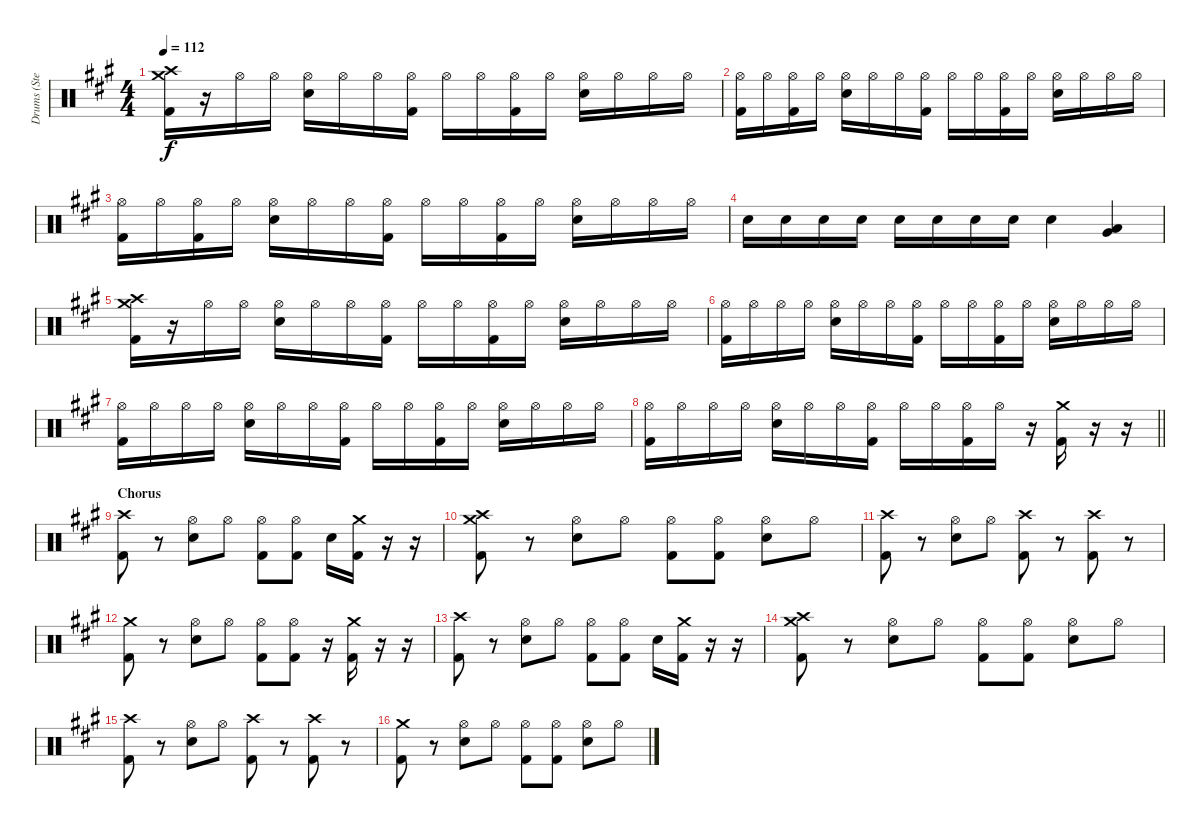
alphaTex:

\track ("Drums (Steven)" "Drums (Ste") {instrument percussion}
\staff {score}
\articulation defaults
\ts (4 4)
\tempo 112
\clef neutral
\ks f#minor
("Crash high (hit)" "Crash medium (hit)" "Kick (hit) 2").16{dy f} r.16 "Hi-Hat (open)".16 "Hi-Hat (open)".16 ("Hi-Hat (open)" "Snare (hit) 2").16 "Hi-Hat (open)".16 "Hi-Hat (open)".16 ("Hi-Hat (open)" "Kick (hit) 2").16 "Hi-Hat (open)".16 "Hi-Hat (open)".16 ("Hi-Hat (open)" "Kick (hit) 2").16 "Hi-Hat (open)".16 ("Hi-Hat (open)" "Snare (hit) 2").16 "Hi-Hat (open)".16 "Hi-Hat (open)".16 "Hi-Hat (open)".16 |
("Hi-Hat (open)" "Kick (hit) 2").16 "Hi-Hat (open)".16 ("Hi-Hat (open)" "Kick (hit) 2").16 "Hi-Hat (open)".16 ("Hi-Hat (open)" "Snare (hit) 2").16 "Hi-Hat (open)".16 "Hi-Hat (open)".16 ("Hi-Hat (open)" "Kick (hit) 2").16 "Hi-Hat (open)".16 "Hi-Hat (open)".16 ("Hi-Hat (open)" "Kick (hit) 2").16 "Hi-Hat (open)".16 ("Hi-Hat (open)" "Snare (hit) 2").16 "Hi-Hat (open)".16 "Hi-Hat (open)".16 "Hi-Hat (open)".16 |
("Hi-Hat (open)" "Kick (hit) 2").16 "Hi-Hat (open)".16 ("Hi-Hat (open)" "Kick (hit) 2").16 "Hi-Hat (open)".16 ("Hi-Hat (open)" "Snare (hit) 2").16 "Hi-Hat (open)".16 "Hi-Hat (open)".16 ("Hi-Hat (open)" "Kick (hit) 2").16 "Hi-Hat (open)".16 "Hi-Hat (open)".16 ("Hi-Hat (open)" "Kick (hit) 2").16 "Hi-Hat (open)".16 ("Hi-Hat (open)" "Snare (hit) 2").16 "Hi-Hat (open)".16 "Hi-Hat (open)".16 "Hi-Hat (open)".16 |
"Snare (hit) 2".16 "Snare (hit) 2".16 "Snare (hit) 2".16 "Snare (hit) 2".16 "Snare (hit) 2".16 "Snare (hit) 2".16 "Snare (hit) 2".16 "Snare (hit) 2".16 "Snare (hit) 2".4 ("Low Floor Tom (hit)" "Very Low Tom (hit)").4 |
("Crash high (hit)" "Crash medium (hit)" "Kick (hit) 2").16 r.16 "Hi-Hat (open)".16 "Hi-Hat (open)".16 ("Hi-Hat (open)" "Snare (hit) 2").16 "Hi-Hat (open)".16 "Hi-Hat (open)".16 ("Hi-Hat (open)" "Kick (hit) 2").16 "Hi-Hat (open)".16 "Hi-Hat (open)".16 ("Hi-Hat (open)" "Kick (hit) 2").16 "Hi-Hat (open)".16 ("Hi-Hat (open)" "Snare (hit) 2").16 "Hi-Hat (open)".16 "Hi-Hat (open)".16 "Hi-Hat (open)".16 |
("Hi-Hat (open)" "Kick (hit) 2").16 "Hi-Hat (open)".16 "Hi-Hat (open)".16 "Hi-Hat (open)".16 ("Hi-Hat (open)" "Snare (hit) 2").16 "Hi-Hat (open)".16 "Hi-Hat (open)".16 ("Hi-Hat (open)" "Kick (hit) 2").16 "Hi-Hat (open)".16 "Hi-Hat (open)".16 ("Hi-Hat (open)" "Kick (hit) 2").16 "Hi-Hat (open)".16 ("Hi-Hat (open)" "Snare (hit) 2").16 "Hi-Hat (open)".16 "Hi-Hat (open)".16 "Hi-Hat (open)".16 |
("Hi-Hat (open)" "Kick (hit) 2").16 "Hi-Hat (open)".16 "Hi-Hat (open)".16 "Hi-Hat (open)".16 ("Hi-Hat (open)" "Snare (hit) 2").16 "Hi-Hat (open)".16 "Hi-Hat (open)".16 ("Hi-Hat (open)" "Kick (hit) 2").16 "Hi-Hat (open)".16 "Hi-Hat (open)".16 ("Hi-Hat (open)" "Kick (hit) 2").16 "Hi-Hat (open)".16 ("Hi-Hat (open)" "Snare (hit) 2").16 "Hi-Hat (open)".16 "Hi-Hat (open)".16 "Hi-Hat (open)".16 |
\barLineRight lightlight
("Hi-Hat (open)" "Kick (hit) 2").16 "Hi-Hat (open)".16 "Hi-Hat (open)".16 "Hi-Hat (open)".16 ("Hi-Hat (open)" "Snare (hit) 2").16 "Hi-Hat (open)".16 "Hi-Hat (open)".16 ("Hi-Hat (open)" "Kick (hit) 2").16 "Hi-Hat (open)".16 "Hi-Hat (open)".16 ("Hi-Hat (open)" "Kick (hit) 2").16 "Hi-Hat (open)".16 r.16 ("Crash medium (hit)" "Kick (hit) 2").16 r.16 r.16 |
\section ("" "Chorus")
("Crash high (hit)" "Kick (hit) 2").8 r.8 ("Hi-Hat (open)" "Snare (hit) 2").8 "Hi-Hat (open)".8 ("Hi-Hat (open)" "Kick (hit) 2").8 ("Hi-Hat (open)" "Kick (hit) 2").8 "Snare (hit) 2".16 ("Crash medium (hit)" "Kick (hit) 2").16 r.16 r.16 |
("Crash high (hit)" "Crash medium (hit)" "Kick (hit) 2").8 r.8 ("Hi-Hat (open)" "Snare (hit) 2").8 "Hi-Hat (open)".8 ("Hi-Hat (open)" "Kick (hit) 2").8 ("Hi-Hat (open)" "Kick (hit) 2").8 ("Hi-Hat (open)" "Snare (hit) 2").8 "Hi-Hat (open)".8 |
("Crash high (hit)" "Kick (hit) 2").8 r.8 ("Hi-Hat (open)" "Snare (hit) 2").8 "Hi-Hat (open)".8 ("Crash high (hit)" "Kick (hit) 2").8 r.8 ("Crash high (hit)" "Kick (hit) 2").8 r.8 |
("Crash medium (hit)" "Kick (hit) 2").8 r.8 ("Hi-Hat (open)" "Snare (hit) 2").8 "Hi-Hat (open)".8 ("Hi-Hat (open)" "Kick (hit) 2").8 ("Hi-Hat (open)" "Kick (hit) 2").8 r.16 ("Crash medium (hit)" "Kick (hit) 2").16 r.16 r.16 |
("Crash high (hit)" "Kick (hit) 2").8 r.8 ("Hi-Hat (open)" "Snare (hit) 2").8 "Hi-Hat (open)".8 ("Hi-Hat (open)" "Kick (hit) 2").8 ("Hi-Hat (open)" "Kick (hit) 2").8 "Snare (hit) 2".16 ("Crash medium (hit)" "Kick (hit) 2").16 r.16 r.16 |
("Crash high (hit)" "Crash medium (hit)" "Kick (hit) 2").8 r.8 ("Hi-Hat (open)" "Snare (hit) 2").8 "Hi-Hat (open)".8 ("Hi-Hat (open)" "Kick (hit) 2").8 ("Hi-Hat (open)" "Kick (hit) 2").8 ("Hi-Hat (open)" "Snare (hit) 2").8 "Hi-Hat (open)".8 |
("Crash high (hit)" "Kick (hit) 2").8 r.8 ("Hi-Hat (open)" "Snare (hit) 2").8 "Hi-Hat (open)".8 ("Crash high (hit)" "Kick (hit) 2").8 r.8 ("Crash high (hit)" "Kick (hit) 2").8 r.8 |
("Crash medium (hit)" "Kick (hit) 2").8 r.8 ("Hi-Hat (open)" "Snare (hit) 2").8 "Hi-Hat (open)".8 ("Hi-Hat (open)" "Kick (hit) 2").8 ("Hi-Hat (open)" "Kick (hit) 2").8 ("Hi-Hat (open)" "Snare (hit) 2").8 "Hi-Hat (open)".8
